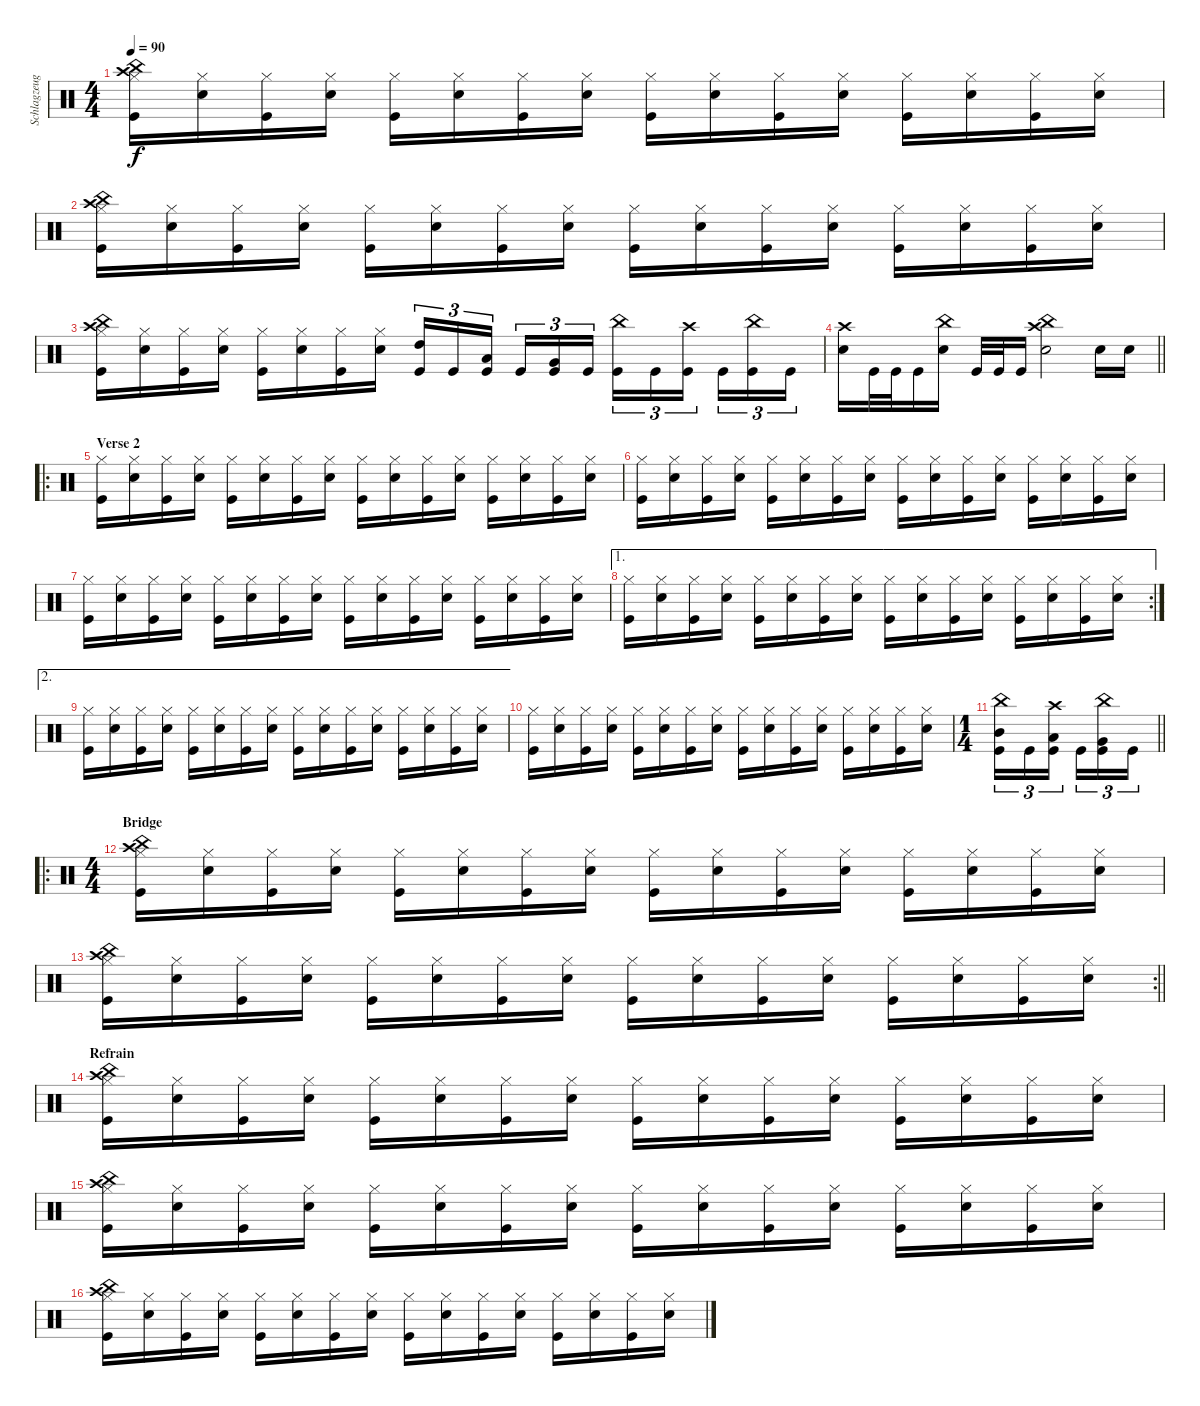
\track ("Schlagzeug" "Schlagzeug") {instrument percussion}
\staff {score}
\articulation defaults
\ts (4 4)
\tempo 90
\clef neutral
\ks c
("Crash high (hit)" "China (hit)" "Hi-Hat (closed)" "Kick (hit)").16{dy f} ("Hi-Hat (closed)" "Snare (hit) 2").16 ("Hi-Hat (closed)" "Kick (hit)").16 ("Hi-Hat (closed)" "Snare (hit) 2").16 ("Hi-Hat (closed)" "Kick (hit)").16 ("Hi-Hat (closed)" "Snare (hit) 2").16 ("Hi-Hat (closed)" "Kick (hit)").16 ("Hi-Hat (closed)" "Snare (hit) 2").16 ("Hi-Hat (closed)" "Kick (hit)").16 ("Hi-Hat (closed)" "Snare (hit) 2").16 ("Hi-Hat (closed)" "Kick (hit)").16 ("Hi-Hat (closed)" "Snare (hit) 2").16 ("Hi-Hat (closed)" "Kick (hit)").16 ("Hi-Hat (closed)" "Snare (hit) 2").16 ("Hi-Hat (closed)" "Kick (hit)").16 ("Hi-Hat (closed)" "Snare (hit) 2").16 |
("Crash high (hit)" "China (hit)" "Hi-Hat (closed)" "Kick (hit)").16 ("Hi-Hat (closed)" "Snare (hit) 2").16 ("Hi-Hat (closed)" "Kick (hit)").16 ("Hi-Hat (closed)" "Snare (hit) 2").16 ("Hi-Hat (closed)" "Kick (hit)").16 ("Hi-Hat (closed)" "Snare (hit) 2").16 ("Hi-Hat (closed)" "Kick (hit)").16 ("Hi-Hat (closed)" "Snare (hit) 2").16 ("Hi-Hat (closed)" "Kick (hit)").16 ("Hi-Hat (closed)" "Snare (hit) 2").16 ("Hi-Hat (closed)" "Kick (hit)").16 ("Hi-Hat (closed)" "Snare (hit) 2").16 ("Hi-Hat (closed)" "Kick (hit)").16 ("Hi-Hat (closed)" "Snare (hit) 2").16 ("Hi-Hat (closed)" "Kick (hit)").16 ("Hi-Hat (closed)" "Snare (hit) 2").16 |
("Crash high (hit)" "China (hit)" "Hi-Hat (closed)" "Kick (hit)").16 ("Hi-Hat (closed)" "Snare (hit) 2").16 ("Hi-Hat (closed)" "Kick (hit)").16 ("Hi-Hat (closed)" "Snare (hit) 2").16 ("Hi-Hat (closed)" "Kick (hit)").16 ("Hi-Hat (closed)" "Snare (hit) 2").16 ("Hi-Hat (closed)" "Kick (hit)").16 ("Hi-Hat (closed)" "Snare (hit) 2").16 ("High Tom (hit)" "Kick (hit)").16{tu (3 2)} "Kick (hit)".16{tu (3 2)} ("Low Tom (hit)" "Kick (hit)").16{tu (3 2) beam splitsecondary} "Kick (hit)".16{tu (3 2)} ("Very Low Tom (hit)" "Kick (hit)").16{tu (3 2)} "Kick (hit)".16{tu (3 2)} ("China (hit)" "Kick (hit)").16{tu (3 2)} "Kick (hit)".16{tu (3 2)} ("Crash high (hit)" "Kick (hit)").16{tu (3 2) beam splitsecondary} "Kick (hit)".16{tu (3 2)} ("China (hit)" "Kick (hit)").16{tu (3 2)} "Kick (hit)".16{tu (3 2)} |
\barLineRight lightlight
("Crash high (hit)" "Snare (hit) 2").16 "Kick (hit)".32 "Kick (hit)".32 "Kick (hit)".16 ("China (hit)" "Snare (hit) 2").16 "Kick (hit)".32 "Kick (hit)".32 "Kick (hit)".16 ("Crash high (hit)" "China (hit)" "Snare (hit) 2").2 "Snare (hit) 2".16 "Snare (hit) 2".16 |
\ro
\section ("" "Verse 2")
("Hi-Hat (closed)" "Kick (hit)").16 ("Hi-Hat (closed)" "Snare (hit) 2").16 ("Hi-Hat (closed)" "Kick (hit)").16 ("Hi-Hat (closed)" "Snare (hit) 2").16 ("Hi-Hat (closed)" "Kick (hit)").16 ("Hi-Hat (closed)" "Snare (hit) 2").16 ("Hi-Hat (closed)" "Kick (hit)").16 ("Hi-Hat (closed)" "Snare (hit) 2").16 ("Hi-Hat (closed)" "Kick (hit)").16 ("Hi-Hat (closed)" "Snare (hit) 2").16 ("Hi-Hat (closed)" "Kick (hit)").16 ("Hi-Hat (closed)" "Snare (hit) 2").16 ("Hi-Hat (closed)" "Kick (hit)").16 ("Hi-Hat (closed)" "Snare (hit) 2").16 ("Hi-Hat (closed)" "Kick (hit)").16 ("Hi-Hat (closed)" "Snare (hit) 2").16 |
("Hi-Hat (closed)" "Kick (hit)").16 ("Hi-Hat (closed)" "Snare (hit) 2").16 ("Hi-Hat (closed)" "Kick (hit)").16 ("Hi-Hat (closed)" "Snare (hit) 2").16 ("Hi-Hat (closed)" "Kick (hit)").16 ("Hi-Hat (closed)" "Snare (hit) 2").16 ("Hi-Hat (closed)" "Kick (hit)").16 ("Hi-Hat (closed)" "Snare (hit) 2").16 ("Hi-Hat (closed)" "Kick (hit)").16 ("Hi-Hat (closed)" "Snare (hit) 2").16 ("Hi-Hat (closed)" "Kick (hit)").16 ("Hi-Hat (closed)" "Snare (hit) 2").16 ("Hi-Hat (closed)" "Kick (hit)").16 ("Hi-Hat (closed)" "Snare (hit) 2").16 ("Hi-Hat (closed)" "Kick (hit)").16 ("Hi-Hat (closed)" "Snare (hit) 2").16 |
("Hi-Hat (closed)" "Kick (hit)").16 ("Hi-Hat (closed)" "Snare (hit) 2").16 ("Hi-Hat (closed)" "Kick (hit)").16 ("Hi-Hat (closed)" "Snare (hit) 2").16 ("Hi-Hat (closed)" "Kick (hit)").16 ("Hi-Hat (closed)" "Snare (hit) 2").16 ("Hi-Hat (closed)" "Kick (hit)").16 ("Hi-Hat (closed)" "Snare (hit) 2").16 ("Hi-Hat (closed)" "Kick (hit)").16 ("Hi-Hat (closed)" "Snare (hit) 2").16 ("Hi-Hat (closed)" "Kick (hit)").16 ("Hi-Hat (closed)" "Snare (hit) 2").16 ("Hi-Hat (closed)" "Kick (hit)").16 ("Hi-Hat (closed)" "Snare (hit) 2").16 ("Hi-Hat (closed)" "Kick (hit)").16 ("Hi-Hat (closed)" "Snare (hit) 2").16 |
\ae 1
\rc 2
("Hi-Hat (closed)" "Kick (hit)").16 ("Hi-Hat (closed)" "Snare (hit) 2").16 ("Hi-Hat (closed)" "Kick (hit)").16 ("Hi-Hat (closed)" "Snare (hit) 2").16 ("Hi-Hat (closed)" "Kick (hit)").16 ("Hi-Hat (closed)" "Snare (hit) 2").16 ("Hi-Hat (closed)" "Kick (hit)").16 ("Hi-Hat (closed)" "Snare (hit) 2").16 ("Hi-Hat (closed)" "Kick (hit)").16 ("Hi-Hat (closed)" "Snare (hit) 2").16 ("Hi-Hat (closed)" "Kick (hit)").16 ("Hi-Hat (closed)" "Snare (hit) 2").16 ("Hi-Hat (closed)" "Kick (hit)").16 ("Hi-Hat (closed)" "Snare (hit) 2").16 ("Hi-Hat (closed)" "Kick (hit)").16 ("Hi-Hat (closed)" "Snare (hit) 2").16 |
\ae 2
("Hi-Hat (closed)" "Kick (hit)").16 ("Hi-Hat (closed)" "Snare (hit) 2").16 ("Hi-Hat (closed)" "Kick (hit)").16 ("Hi-Hat (closed)" "Snare (hit) 2").16 ("Hi-Hat (closed)" "Kick (hit)").16 ("Hi-Hat (closed)" "Snare (hit) 2").16 ("Hi-Hat (closed)" "Kick (hit)").16 ("Hi-Hat (closed)" "Snare (hit) 2").16 ("Hi-Hat (closed)" "Kick (hit)").16 ("Hi-Hat (closed)" "Snare (hit) 2").16 ("Hi-Hat (closed)" "Kick (hit)").16 ("Hi-Hat (closed)" "Snare (hit) 2").16 ("Hi-Hat (closed)" "Kick (hit)").16 ("Hi-Hat (closed)" "Snare (hit) 2").16 ("Hi-Hat (closed)" "Kick (hit)").16 ("Hi-Hat (closed)" "Snare (hit) 2").16 |
("Hi-Hat (closed)" "Kick (hit)").16 ("Hi-Hat (closed)" "Snare (hit) 2").16 ("Hi-Hat (closed)" "Kick (hit)").16 ("Hi-Hat (closed)" "Snare (hit) 2").16 ("Hi-Hat (closed)" "Kick (hit)").16 ("Hi-Hat (closed)" "Snare (hit) 2").16 ("Hi-Hat (closed)" "Kick (hit)").16 ("Hi-Hat (closed)" "Snare (hit) 2").16 ("Hi-Hat (closed)" "Kick (hit)").16 ("Hi-Hat (closed)" "Snare (hit) 2").16 ("Hi-Hat (closed)" "Kick (hit)").16 ("Hi-Hat (closed)" "Snare (hit) 2").16 ("Hi-Hat (closed)" "Kick (hit)").16 ("Hi-Hat (closed)" "Snare (hit) 2").16 ("Hi-Hat (closed)" "Kick (hit)").16 ("Hi-Hat (closed)" "Snare (hit) 2").16 |
\ts (1 4)
\barLineRight lightlight
("China (hit)" "Mid Tom (hit)" "Kick (hit)").16{tu (3 2)} "Kick (hit)".16{tu (3 2)} ("Crash high (hit)" "Low Tom (hit)" "Kick (hit)").16{tu (3 2) beam splitsecondary} "Kick (hit)".16{tu (3 2)} ("China (hit)" "Very Low Tom (hit)" "Kick (hit)").16{tu (3 2)} "Kick (hit)".16{tu (3 2)} |
\ro
\ts (4 4)
\section ("" "Bridge")
("Crash high (hit)" "China (hit)" "Hi-Hat (closed)" "Kick (hit)").16 ("Hi-Hat (closed)" "Snare (hit) 2").16 ("Hi-Hat (closed)" "Kick (hit)").16 ("Hi-Hat (closed)" "Snare (hit) 2").16 ("Hi-Hat (closed)" "Kick (hit)").16 ("Hi-Hat (closed)" "Snare (hit) 2").16 ("Hi-Hat (closed)" "Kick (hit)").16 ("Hi-Hat (closed)" "Snare (hit) 2").16 ("Hi-Hat (closed)" "Kick (hit)").16 ("Hi-Hat (closed)" "Snare (hit) 2").16 ("Hi-Hat (closed)" "Kick (hit)").16 ("Hi-Hat (closed)" "Snare (hit) 2").16 ("Hi-Hat (closed)" "Kick (hit)").16 ("Hi-Hat (closed)" "Snare (hit) 2").16 ("Hi-Hat (closed)" "Kick (hit)").16 ("Hi-Hat (closed)" "Snare (hit) 2").16 |
\rc 2
\barLineRight lightlight
("Crash high (hit)" "China (hit)" "Hi-Hat (closed)" "Kick (hit)").16 ("Hi-Hat (closed)" "Snare (hit) 2").16 ("Hi-Hat (closed)" "Kick (hit)").16 ("Hi-Hat (closed)" "Snare (hit) 2").16 ("Hi-Hat (closed)" "Kick (hit)").16 ("Hi-Hat (closed)" "Snare (hit) 2").16 ("Hi-Hat (closed)" "Kick (hit)").16 ("Hi-Hat (closed)" "Snare (hit) 2").16 ("Hi-Hat (closed)" "Kick (hit)").16 ("Hi-Hat (closed)" "Snare (hit) 2").16 ("Hi-Hat (closed)" "Kick (hit)").16 ("Hi-Hat (closed)" "Snare (hit) 2").16 ("Hi-Hat (closed)" "Kick (hit)").16 ("Hi-Hat (closed)" "Snare (hit) 2").16 ("Hi-Hat (closed)" "Kick (hit)").16 ("Hi-Hat (closed)" "Snare (hit) 2").16 |
\section ("" "Refrain")
("Crash high (hit)" "China (hit)" "Hi-Hat (closed)" "Kick (hit)").16 ("Hi-Hat (closed)" "Snare (hit) 2").16 ("Hi-Hat (closed)" "Kick (hit)").16 ("Hi-Hat (closed)" "Snare (hit) 2").16 ("Hi-Hat (closed)" "Kick (hit)").16 ("Hi-Hat (closed)" "Snare (hit) 2").16 ("Hi-Hat (closed)" "Kick (hit)").16 ("Hi-Hat (closed)" "Snare (hit) 2").16 ("Hi-Hat (closed)" "Kick (hit)").16 ("Hi-Hat (closed)" "Snare (hit) 2").16 ("Hi-Hat (closed)" "Kick (hit)").16 ("Hi-Hat (closed)" "Snare (hit) 2").16 ("Hi-Hat (closed)" "Kick (hit)").16 ("Hi-Hat (closed)" "Snare (hit) 2").16 ("Hi-Hat (closed)" "Kick (hit)").16 ("Hi-Hat (closed)" "Snare (hit) 2").16 |
("Crash high (hit)" "China (hit)" "Hi-Hat (closed)" "Kick (hit)").16 ("Hi-Hat (closed)" "Snare (hit) 2").16 ("Hi-Hat (closed)" "Kick (hit)").16 ("Hi-Hat (closed)" "Snare (hit) 2").16 ("Hi-Hat (closed)" "Kick (hit)").16 ("Hi-Hat (closed)" "Snare (hit) 2").16 ("Hi-Hat (closed)" "Kick (hit)").16 ("Hi-Hat (closed)" "Snare (hit) 2").16 ("Hi-Hat (closed)" "Kick (hit)").16 ("Hi-Hat (closed)" "Snare (hit) 2").16 ("Hi-Hat (closed)" "Kick (hit)").16 ("Hi-Hat (closed)" "Snare (hit) 2").16 ("Hi-Hat (closed)" "Kick (hit)").16 ("Hi-Hat (closed)" "Snare (hit) 2").16 ("Hi-Hat (closed)" "Kick (hit)").16 ("Hi-Hat (closed)" "Snare (hit) 2").16 |
("Crash high (hit)" "China (hit)" "Hi-Hat (closed)" "Kick (hit)").16 ("Hi-Hat (closed)" "Snare (hit) 2").16 ("Hi-Hat (closed)" "Kick (hit)").16 ("Hi-Hat (closed)" "Snare (hit) 2").16 ("Hi-Hat (closed)" "Kick (hit)").16 ("Hi-Hat (closed)" "Snare (hit) 2").16 ("Hi-Hat (closed)" "Kick (hit)").16 ("Hi-Hat (closed)" "Snare (hit) 2").16 ("Hi-Hat (closed)" "Kick (hit)").16 ("Hi-Hat (closed)" "Snare (hit) 2").16 ("Hi-Hat (closed)" "Kick (hit)").16 ("Hi-Hat (closed)" "Snare (hit) 2").16 ("Hi-Hat (closed)" "Kick (hit)").16 ("Hi-Hat (closed)" "Snare (hit) 2").16 ("Hi-Hat (closed)" "Kick (hit)").16 ("Hi-Hat (closed)" "Snare (hit) 2").16
